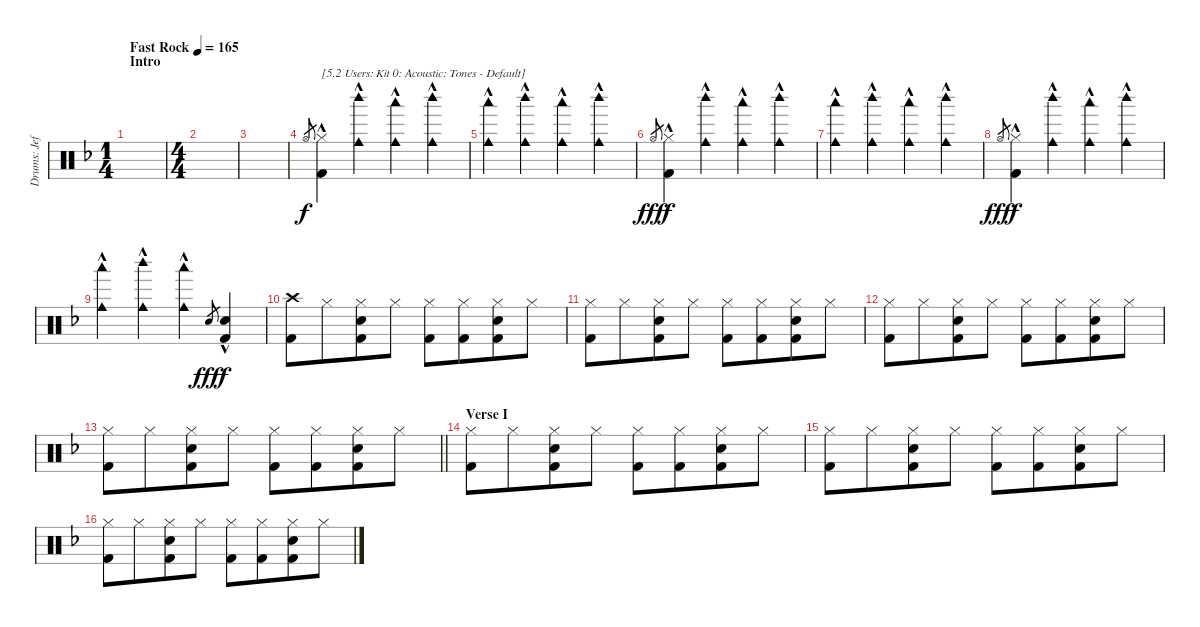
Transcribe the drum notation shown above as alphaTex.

\track ("Drums: Jeff" "Drums: Jef") {instrument percussion}
\staff {score}
\articulation defaults
\ts (1 4)
\section ("" "Intro")
\tempo (165 "Fast Rock")
\clef neutral
\ks f
|
\ts (4 4)
|
|
"Hi-Hat (open)".8{gr} ("Hi-Hat (closed)"{hac} "Kick (hit) 2"{hac}).4{txt "[5.2 Users: Kit 0: Acoustic: Tones - Default]" dy f} ("Cowbell medium (hit)" "Woodblock high (hit)"{hac}).4 ("Cowbell medium (hit)" "Woodblock low (hit)"{hac}).4 ("Cowbell medium (hit)" "Woodblock high (hit)"{hac}).4 |
("Cowbell medium (hit)" "Woodblock low (hit)"{hac}).4 ("Cowbell medium (hit)" "Woodblock high (hit)"{hac}).4 ("Cowbell medium (hit)" "Woodblock low (hit)"{hac}).4 ("Cowbell medium (hit)" "Woodblock high (hit)"{hac}).4 |
"Hi-Hat (open)".8{gr dy fff} ("Hi-Hat (closed)"{hac} "Kick (hit) 2"{hac}).4{dy f} ("Cowbell medium (hit)" "Woodblock high (hit)"{hac}).4 ("Cowbell medium (hit)" "Woodblock low (hit)"{hac}).4 ("Cowbell medium (hit)" "Woodblock high (hit)"{hac}).4 |
("Cowbell medium (hit)" "Woodblock low (hit)"{hac}).4 ("Cowbell medium (hit)" "Woodblock high (hit)"{hac}).4 ("Cowbell medium (hit)" "Woodblock low (hit)"{hac}).4 ("Cowbell medium (hit)" "Woodblock high (hit)"{hac}).4 |
"Hi-Hat (open)".8{gr dy fff} ("Hi-Hat (closed)"{hac} "Kick (hit) 2"{hac}).4{dy f} ("Cowbell medium (hit)" "Woodblock high (hit)"{hac}).4 ("Cowbell medium (hit)" "Woodblock low (hit)"{hac}).4 ("Cowbell medium (hit)" "Woodblock high (hit)"{hac}).4 |
("Cowbell medium (hit)" "Woodblock low (hit)"{hac}).4 ("Cowbell medium (hit)" "Woodblock high (hit)"{hac}).4 ("Cowbell medium (hit)" "Woodblock low (hit)"{hac}).4 "Snare (hit) 2".8{gr dy fff} ("Electric Snare (hit)"{hac} "Kick (hit) 2"{hac}).4{dy f} |
("Crash high (hit)" "Kick (hit) 2").8 "Hi-Hat (closed)".8{beam merge} ("Hi-Hat (closed)" "Snare (hit) 2" "Kick (hit) 2").8 "Hi-Hat (closed)".8{beam split} ("Hi-Hat (closed)" "Kick (hit) 2").8 ("Hi-Hat (closed)" "Kick (hit) 2").8{beam merge} ("Hi-Hat (closed)" "Snare (hit) 2" "Kick (hit) 2").8 "Hi-Hat (closed)".8 |
("Hi-Hat (closed)" "Kick (hit) 2").8 "Hi-Hat (closed)".8{beam merge} ("Hi-Hat (closed)" "Snare (hit) 2" "Kick (hit) 2").8 "Hi-Hat (closed)".8{beam split} ("Hi-Hat (closed)" "Kick (hit) 2").8 ("Hi-Hat (closed)" "Kick (hit) 2").8{beam merge} ("Hi-Hat (closed)" "Snare (hit) 2" "Kick (hit) 2").8 "Hi-Hat (closed)".8 |
("Hi-Hat (closed)" "Kick (hit) 2").8 "Hi-Hat (closed)".8{beam merge} ("Hi-Hat (closed)" "Snare (hit) 2" "Kick (hit) 2").8 "Hi-Hat (closed)".8{beam split} ("Hi-Hat (closed)" "Kick (hit) 2").8 ("Hi-Hat (closed)" "Kick (hit) 2").8{beam merge} ("Hi-Hat (closed)" "Snare (hit) 2" "Kick (hit) 2").8 "Hi-Hat (closed)".8 |
\barLineRight lightlight
("Hi-Hat (closed)" "Kick (hit) 2").8 "Hi-Hat (closed)".8{beam merge} ("Hi-Hat (closed)" "Snare (hit) 2" "Kick (hit) 2").8 "Hi-Hat (closed)".8{beam split} ("Hi-Hat (closed)" "Kick (hit) 2").8 ("Hi-Hat (closed)" "Kick (hit) 2").8{beam merge} ("Hi-Hat (closed)" "Snare (hit) 2" "Kick (hit) 2").8 "Hi-Hat (closed)".8 |
\section ("" "Verse I")
("Hi-Hat (closed)" "Kick (hit) 2").8 "Hi-Hat (closed)".8{beam merge} ("Hi-Hat (closed)" "Snare (hit) 2" "Kick (hit) 2").8 "Hi-Hat (closed)".8{beam split} ("Hi-Hat (closed)" "Kick (hit) 2").8 ("Hi-Hat (closed)" "Kick (hit) 2").8{beam merge} ("Hi-Hat (closed)" "Snare (hit) 2" "Kick (hit) 2").8 "Hi-Hat (closed)".8 |
("Hi-Hat (closed)" "Kick (hit) 2").8 "Hi-Hat (closed)".8{beam merge} ("Hi-Hat (closed)" "Snare (hit) 2" "Kick (hit) 2").8 "Hi-Hat (closed)".8{beam split} ("Hi-Hat (closed)" "Kick (hit) 2").8 ("Hi-Hat (closed)" "Kick (hit) 2").8{beam merge} ("Hi-Hat (closed)" "Snare (hit) 2" "Kick (hit) 2").8 "Hi-Hat (closed)".8 |
("Hi-Hat (closed)" "Kick (hit) 2").8 "Hi-Hat (closed)".8{beam merge} ("Hi-Hat (closed)" "Snare (hit) 2" "Kick (hit) 2").8 "Hi-Hat (closed)".8{beam split} ("Hi-Hat (closed)" "Kick (hit) 2").8 ("Hi-Hat (closed)" "Kick (hit) 2").8{beam merge} ("Hi-Hat (closed)" "Snare (hit) 2" "Kick (hit) 2").8 "Hi-Hat (closed)".8
